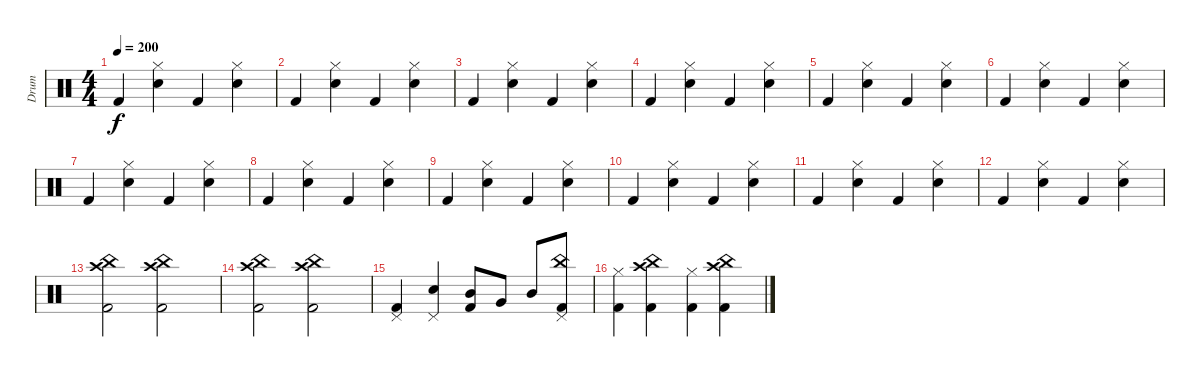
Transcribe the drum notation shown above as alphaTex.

\track ("Drum" "Drum") {instrument percussion}
\staff {score}
\articulation defaults
\ts (4 4)
\tempo 200
\clef neutral
\ks c "Kick (hit) 2".4{dy f}
("Hi-Hat (closed)" "Electric Snare (hit)").4 "Kick (hit) 2".4 ("Hi-Hat (closed)" "Electric Snare (hit)").4 |
"Kick (hit) 2".4 ("Hi-Hat (closed)" "Electric Snare (hit)").4 "Kick (hit) 2".4 ("Hi-Hat (closed)" "Electric Snare (hit)").4 |
"Kick (hit) 2".4 ("Hi-Hat (closed)" "Electric Snare (hit)").4 "Kick (hit) 2".4 ("Hi-Hat (closed)" "Electric Snare (hit)").4 |
"Kick (hit) 2".4 ("Hi-Hat (closed)" "Electric Snare (hit)").4 "Kick (hit) 2".4 ("Hi-Hat (closed)" "Electric Snare (hit)").4 |
"Kick (hit) 2".4 ("Hi-Hat (closed)" "Electric Snare (hit)").4 "Kick (hit) 2".4 ("Hi-Hat (closed)" "Electric Snare (hit)").4 |
"Kick (hit) 2".4 ("Hi-Hat (closed)" "Electric Snare (hit)").4 "Kick (hit) 2".4 ("Hi-Hat (closed)" "Electric Snare (hit)").4 |
"Kick (hit) 2".4 ("Hi-Hat (closed)" "Electric Snare (hit)").4 "Kick (hit) 2".4 ("Hi-Hat (closed)" "Electric Snare (hit)").4 |
"Kick (hit) 2".4 ("Hi-Hat (closed)" "Electric Snare (hit)").4 "Kick (hit) 2".4 ("Hi-Hat (closed)" "Electric Snare (hit)").4 |
"Kick (hit) 2".4 ("Hi-Hat (closed)" "Electric Snare (hit)").4 "Kick (hit) 2".4 ("Hi-Hat (closed)" "Electric Snare (hit)").4 |
"Kick (hit) 2".4 ("Hi-Hat (closed)" "Electric Snare (hit)").4 "Kick (hit) 2".4 ("Hi-Hat (closed)" "Electric Snare (hit)").4 |
"Kick (hit) 2".4 ("Hi-Hat (closed)" "Electric Snare (hit)").4 "Kick (hit) 2".4 ("Hi-Hat (closed)" "Electric Snare (hit)").4 |
"Kick (hit) 2".4 ("Hi-Hat (closed)" "Electric Snare (hit)").4 "Kick (hit) 2".4 ("Hi-Hat (closed)" "Electric Snare (hit)").4 |
("China (hit)" "Crash high (hit)" "Kick (hit) 2").2 ("China (hit)" "Crash high (hit)" "Kick (hit) 2").2 |
("China (hit)" "Crash high (hit)" "Kick (hit) 2").2 ("China (hit)" "Crash high (hit)" "Kick (hit) 2").2 |
("Pedal Hi-Hat (hit)" "Kick (hit) 2").4 ("Pedal Hi-Hat (hit)" "Electric Snare (hit)").4 ("Mid Tom (hit)" "Kick (hit) 2").8 "Very Low Tom (hit)".8 "Mid Tom (hit)".8 ("China (hit)" "Pedal Hi-Hat (hit)" "Kick (hit) 2").8 |
("Hi-Hat (closed)" "Kick (hit) 2").4 ("China (hit)" "Crash high (hit)" "Kick (hit) 2").4 ("Hi-Hat (closed)" "Kick (hit) 2").4 ("China (hit)" "Crash high (hit)" "Kick (hit) 2").4
